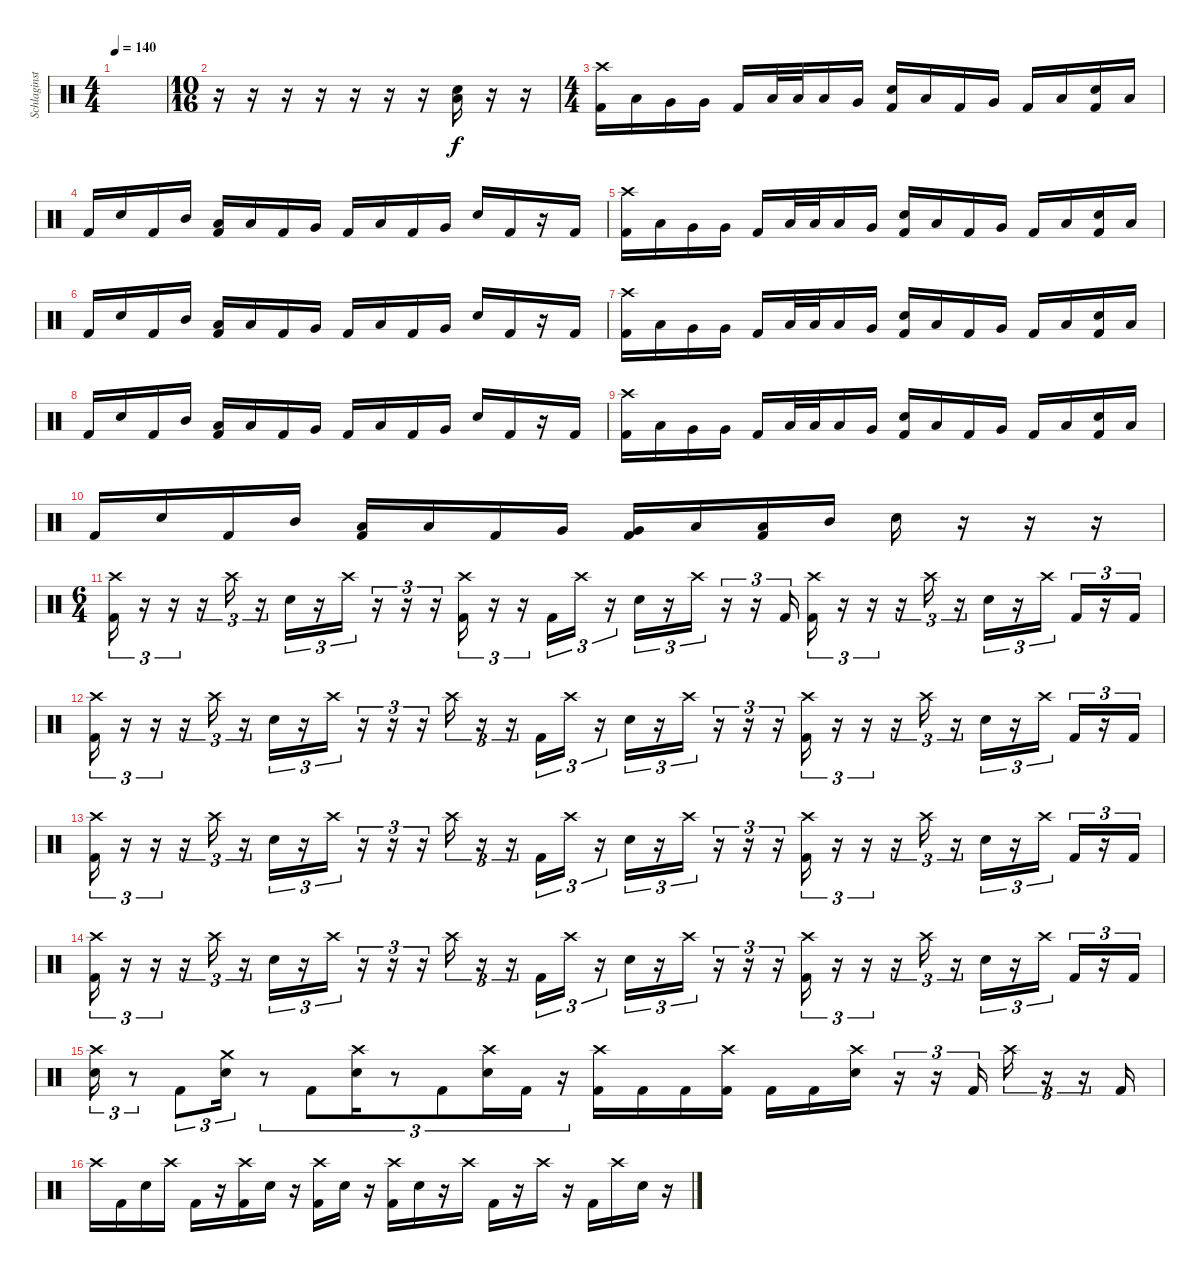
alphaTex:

\track ("Schlaginstrumente - Auswahl" "Schlaginst") {instrument percussion}
\staff {score}
\articulation defaults
\ts (4 4)
\tempo 140
\clef neutral
\ks c
|
\ts (10 16)
r.16 r.16 r.16 r.16 r.16 r.16 r.16 ("Snare (hit) 2" "Low Tom (hit)").16 r.16 r.16 |
\ts (4 4)
("Crash high (hit)" "Kick (hit) 2").16 "Low Floor Tom (hit)".16 "Very Low Tom (hit)".16 "Very Low Tom (hit)".16 "Kick (hit) 2".16 "Low Tom (hit)".32 "Low Tom (hit)".32 "Low Floor Tom (hit)".16 "Very Low Tom (hit)".16 ("Snare (hit) 2" "Kick (hit) 2").16 "Low Floor Tom (hit)".16 "Kick (hit) 2".16 "Very Low Tom (hit)".16 "Kick (hit) 2".16 "Low Tom (hit)".16 ("Snare (hit) 2" "Kick (hit) 2").16 "Low Tom (hit)".16 |
"Kick (hit) 2".16 "Snare (hit) 2".16 "Kick (hit) 2".16 "Mid Tom (hit)".16 ("Low Tom (hit)" "Kick (hit) 2").16 "Low Floor Tom (hit)".16 "Kick (hit) 2".16 "Very Low Tom (hit)".16 "Kick (hit) 2".16 "Low Tom (hit)".16 "Kick (hit) 2".16 "Very Low Tom (hit)".16 "Snare (hit) 2".16 "Kick (hit) 2".16 r.16 "Kick (hit) 2".16 |
("Crash high (hit)" "Kick (hit) 2").16 "Low Floor Tom (hit)".16 "Very Low Tom (hit)".16 "Very Low Tom (hit)".16 "Kick (hit) 2".16 "Low Tom (hit)".32 "Low Tom (hit)".32 "Low Floor Tom (hit)".16 "Very Low Tom (hit)".16 ("Snare (hit) 2" "Kick (hit) 2").16 "Low Floor Tom (hit)".16 "Kick (hit) 2".16 "Very Low Tom (hit)".16 "Kick (hit) 2".16 "Low Tom (hit)".16 ("Snare (hit) 2" "Kick (hit) 2").16 "Low Tom (hit)".16 |
"Kick (hit) 2".16 "Snare (hit) 2".16 "Kick (hit) 2".16 "Mid Tom (hit)".16 ("Low Tom (hit)" "Kick (hit) 2").16 "Low Floor Tom (hit)".16 "Kick (hit) 2".16 "Very Low Tom (hit)".16 "Kick (hit) 2".16 "Low Tom (hit)".16 "Kick (hit) 2".16 "Very Low Tom (hit)".16 "Snare (hit) 2".16 "Kick (hit) 2".16 r.16 "Kick (hit) 2".16 |
("Crash high (hit)" "Kick (hit) 2").16 "Low Floor Tom (hit)".16 "Very Low Tom (hit)".16 "Very Low Tom (hit)".16 "Kick (hit) 2".16 "Low Tom (hit)".32 "Low Tom (hit)".32 "Low Floor Tom (hit)".16 "Very Low Tom (hit)".16 ("Snare (hit) 2" "Kick (hit) 2").16 "Low Floor Tom (hit)".16 "Kick (hit) 2".16 "Very Low Tom (hit)".16 "Kick (hit) 2".16 "Low Tom (hit)".16 ("Snare (hit) 2" "Kick (hit) 2").16 "Low Tom (hit)".16 |
"Kick (hit) 2".16 "Snare (hit) 2".16 "Kick (hit) 2".16 "Mid Tom (hit)".16 ("Low Tom (hit)" "Kick (hit) 2").16 "Low Floor Tom (hit)".16 "Kick (hit) 2".16 "Very Low Tom (hit)".16 "Kick (hit) 2".16 "Low Tom (hit)".16 "Kick (hit) 2".16 "Very Low Tom (hit)".16 "Snare (hit) 2".16 "Kick (hit) 2".16 r.16 "Kick (hit) 2".16 |
("Crash high (hit)" "Kick (hit) 2").16 "Low Floor Tom (hit)".16 "Very Low Tom (hit)".16 "Very Low Tom (hit)".16 "Kick (hit) 2".16 "Low Tom (hit)".32 "Low Tom (hit)".32 "Low Floor Tom (hit)".16 "Very Low Tom (hit)".16 ("Snare (hit) 2" "Kick (hit) 2").16 "Low Floor Tom (hit)".16 "Kick (hit) 2".16 "Very Low Tom (hit)".16 "Kick (hit) 2".16 "Low Tom (hit)".16 ("Snare (hit) 2" "Kick (hit) 2").16 "Low Tom (hit)".16 |
"Kick (hit) 2".16 "Snare (hit) 2".16 "Kick (hit) 2".16 "Mid Tom (hit)".16 ("Low Tom (hit)" "Kick (hit) 2").16 "Low Floor Tom (hit)".16 "Kick (hit) 2".16 "Very Low Tom (hit)".16 ("Very Low Tom (hit)" "Kick (hit) 2").16 "Low Tom (hit)".16 ("Low Tom (hit)" "Kick (hit) 2").16 "Mid Tom (hit)".16 "Snare (hit) 2".16 r.16 r.16 r.16 |
\ts (6 4)
("Crash high (hit)" "Kick (hit) 2").16{tu (3 2)} r.16{tu (3 2)} r.16{tu (3 2)} r.16{tu (3 2)} "Crash high (hit)".16{tu (3 2)} r.16{tu (3 2)} "Snare (hit) 2".16{tu (3 2)} r.16{tu (3 2)} "Crash high (hit)".16{tu (3 2)} r.16{tu (3 2)} r.16{tu (3 2)} r.16{tu (3 2)} ("Crash high (hit)" "Kick (hit) 2").16{tu (3 2)} r.16{tu (3 2)} r.16{tu (3 2)} "Kick (hit) 2".16{tu (3 2)} "Crash high (hit)".16{tu (3 2)} r.16{tu (3 2)} "Snare (hit) 2".16{tu (3 2)} r.16{tu (3 2)} "Crash high (hit)".16{tu (3 2)} r.16{tu (3 2)} r.16{tu (3 2)} "Kick (hit) 2".16{tu (3 2)} ("Crash high (hit)" "Kick (hit) 2").16{tu (3 2)} r.16{tu (3 2)} r.16{tu (3 2)} r.16{tu (3 2)} "Crash high (hit)".16{tu (3 2)} r.16{tu (3 2)} "Snare (hit) 2".16{tu (3 2)} r.16{tu (3 2)} "Crash high (hit)".16{tu (3 2)} "Kick (hit) 2".16{tu (3 2)} r.16{tu (3 2)} "Kick (hit) 2".16{tu (3 2)} |
("Crash high (hit)" "Kick (hit) 2").16{tu (3 2)} r.16{tu (3 2)} r.16{tu (3 2)} r.16{tu (3 2)} "Crash high (hit)".16{tu (3 2)} r.16{tu (3 2)} "Snare (hit) 2".16{tu (3 2)} r.16{tu (3 2)} "Crash high (hit)".16{tu (3 2)} r.16{tu (3 2)} r.16{tu (3 2)} r.16{tu (3 2)} "Crash high (hit)".16{tu (3 2)} r.16{tu (3 2)} r.16{tu (3 2)} "Kick (hit) 2".16{tu (3 2)} "Crash high (hit)".16{tu (3 2)} r.16{tu (3 2)} "Snare (hit) 2".16{tu (3 2)} r.16{tu (3 2)} "Crash high (hit)".16{tu (3 2)} r.16{tu (3 2)} r.16{tu (3 2)} r.16{tu (3 2)} ("Crash high (hit)" "Kick (hit) 2").16{tu (3 2)} r.16{tu (3 2)} r.16{tu (3 2)} r.16{tu (3 2)} "Crash high (hit)".16{tu (3 2)} r.16{tu (3 2)} "Snare (hit) 2".16{tu (3 2)} r.16{tu (3 2)} "Crash high (hit)".16{tu (3 2)} "Kick (hit) 2".16{tu (3 2)} r.16{tu (3 2)} "Kick (hit) 2".16{tu (3 2)} |
("Crash high (hit)" "Kick (hit) 2").16{tu (3 2)} r.16{tu (3 2)} r.16{tu (3 2)} r.16{tu (3 2)} "Crash high (hit)".16{tu (3 2)} r.16{tu (3 2)} "Snare (hit) 2".16{tu (3 2)} r.16{tu (3 2)} "Crash high (hit)".16{tu (3 2)} r.16{tu (3 2)} r.16{tu (3 2)} r.16{tu (3 2)} "Crash high (hit)".16{tu (3 2)} r.16{tu (3 2)} r.16{tu (3 2)} "Kick (hit) 2".16{tu (3 2)} "Crash high (hit)".16{tu (3 2)} r.16{tu (3 2)} "Snare (hit) 2".16{tu (3 2)} r.16{tu (3 2)} "Crash high (hit)".16{tu (3 2)} r.16{tu (3 2)} r.16{tu (3 2)} r.16{tu (3 2)} ("Crash high (hit)" "Kick (hit) 2").16{tu (3 2)} r.16{tu (3 2)} r.16{tu (3 2)} r.16{tu (3 2)} "Crash high (hit)".16{tu (3 2)} r.16{tu (3 2)} "Snare (hit) 2".16{tu (3 2)} r.16{tu (3 2)} "Crash high (hit)".16{tu (3 2)} "Kick (hit) 2".16{tu (3 2)} r.16{tu (3 2)} "Kick (hit) 2".16{tu (3 2)} |
("Crash high (hit)" "Kick (hit) 2").16{tu (3 2)} r.16{tu (3 2)} r.16{tu (3 2)} r.16{tu (3 2)} "Crash high (hit)".16{tu (3 2)} r.16{tu (3 2)} "Snare (hit) 2".16{tu (3 2)} r.16{tu (3 2)} "Crash high (hit)".16{tu (3 2)} r.16{tu (3 2)} r.16{tu (3 2)} r.16{tu (3 2)} "Crash high (hit)".16{tu (3 2)} r.16{tu (3 2)} r.16{tu (3 2)} "Kick (hit) 2".16{tu (3 2)} "Crash high (hit)".16{tu (3 2)} r.16{tu (3 2)} "Snare (hit) 2".16{tu (3 2)} r.16{tu (3 2)} "Crash high (hit)".16{tu (3 2)} r.16{tu (3 2)} r.16{tu (3 2)} r.16{tu (3 2)} ("Crash high (hit)" "Kick (hit) 2").16{tu (3 2)} r.16{tu (3 2)} r.16{tu (3 2)} r.16{tu (3 2)} "Crash high (hit)".16{tu (3 2)} r.16{tu (3 2)} "Snare (hit) 2".16{tu (3 2)} r.16{tu (3 2)} "Crash high (hit)".16{tu (3 2)} "Kick (hit) 2".16{tu (3 2)} r.16{tu (3 2)} "Kick (hit) 2".16{tu (3 2)} |
("Crash high (hit)" "Snare (hit) 2").16{tu (3 2)} r.8{tu (3 2)} "Kick (hit) 2".8{tu (3 2)} ("Crash medium (hit)" "Snare (hit) 2").16{tu (3 2)} r.8{tu (3 2)} "Kick (hit) 2".8{tu (3 2)} ("Crash high (hit)" "Snare (hit) 2").16{tu (3 2)} r.8{tu (3 2)} "Kick (hit) 2".8{tu (3 2)} ("Crash high (hit)" "Snare (hit) 2").16{tu (3 2)} "Kick (hit) 2".16{tu (3 2)} r.16{tu (3 2)} ("Crash high (hit)" "Kick (hit) 2").16 "Kick (hit) 2".16 "Kick (hit) 2".16 ("Crash high (hit)" "Kick (hit) 2").16 "Kick (hit) 2".16 "Kick (hit) 2".16 ("Crash high (hit)" "Snare (hit) 2").16 r.16{tu (3 2)} r.16{tu (3 2)} "Kick (hit) 2".16{tu (3 2)} "Crash high (hit)".16{tu (3 2)} r.16{tu (3 2)} r.16{tu (3 2)} "Kick (hit) 2".16 |
"Crash high (hit)".16 "Kick (hit) 2".16 "Snare (hit) 2".16 "Crash high (hit)".16 "Kick (hit) 2".16 r.16 ("Crash high (hit)" "Kick (hit) 2").16 "Snare (hit) 2".16 r.16 ("Crash high (hit)" "Kick (hit) 2").16 "Snare (hit) 2".16 r.16 ("Crash high (hit)" "Kick (hit) 2").16 "Snare (hit) 2".16 r.16 "Crash high (hit)".16 "Kick (hit) 2".16 r.16 "Crash high (hit)".16 r.16 "Kick (hit) 2".16 "Crash high (hit)".16 "Snare (hit) 2".16 r.16
